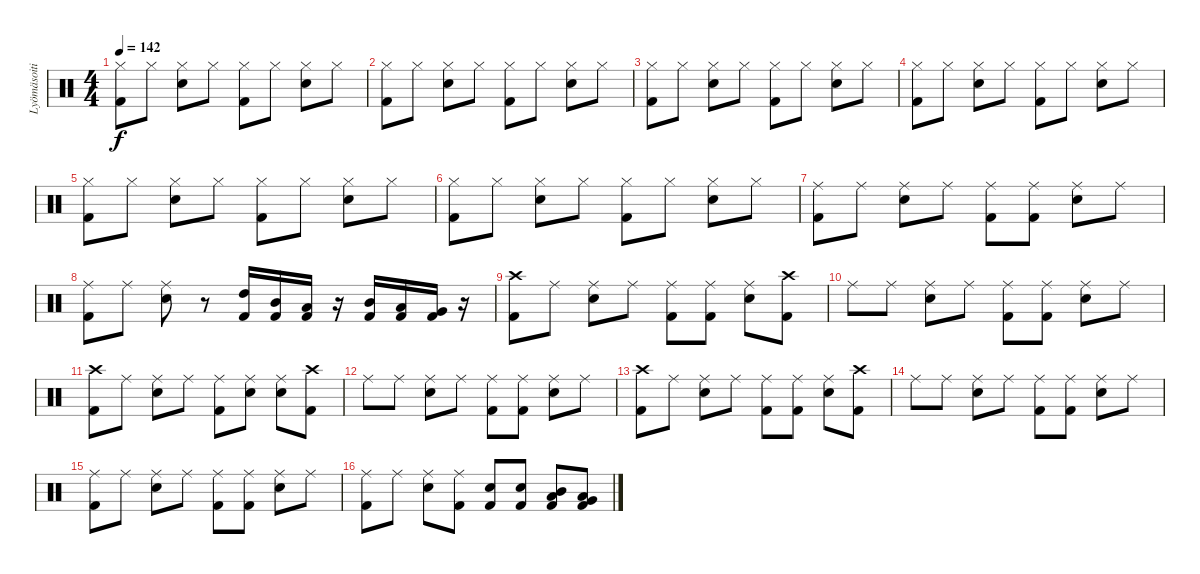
\track ("Lyömäsoitin" "Lyömäsoiti") {instrument percussion}
\staff {score}
\articulation defaults
\ts (4 4)
\tempo 142
\clef neutral
\ks c
("Hi-Hat (closed)" "Kick (hit) 2").8{dy f} "Hi-Hat (closed)".8 ("Hi-Hat (closed)" "Electric Snare (hit)").8 "Hi-Hat (closed)".8 ("Hi-Hat (closed)" "Kick (hit) 2").8 "Hi-Hat (closed)".8 ("Hi-Hat (closed)" "Electric Snare (hit)").8 "Hi-Hat (closed)".8 |
("Hi-Hat (closed)" "Kick (hit) 2").8 "Hi-Hat (closed)".8 ("Hi-Hat (closed)" "Electric Snare (hit)").8 "Hi-Hat (closed)".8 ("Hi-Hat (closed)" "Kick (hit) 2").8 "Hi-Hat (closed)".8 ("Hi-Hat (closed)" "Electric Snare (hit)").8 "Hi-Hat (closed)".8 |
("Hi-Hat (closed)" "Kick (hit) 2").8 "Hi-Hat (closed)".8 ("Hi-Hat (closed)" "Electric Snare (hit)").8 "Hi-Hat (closed)".8 ("Hi-Hat (closed)" "Kick (hit) 2").8 "Hi-Hat (closed)".8 ("Hi-Hat (closed)" "Electric Snare (hit)").8 "Hi-Hat (closed)".8 |
("Hi-Hat (closed)" "Kick (hit) 2").8 "Hi-Hat (closed)".8 ("Hi-Hat (closed)" "Electric Snare (hit)").8 "Hi-Hat (closed)".8 ("Hi-Hat (closed)" "Kick (hit) 2").8 "Hi-Hat (closed)".8 ("Hi-Hat (closed)" "Electric Snare (hit)").8 "Hi-Hat (closed)".8 |
("Hi-Hat (closed)" "Kick (hit) 2").8 "Hi-Hat (closed)".8 ("Hi-Hat (closed)" "Electric Snare (hit)").8 "Hi-Hat (closed)".8 ("Hi-Hat (closed)" "Kick (hit) 2").8 "Hi-Hat (closed)".8 ("Hi-Hat (closed)" "Electric Snare (hit)").8 "Hi-Hat (closed)".8 |
("Hi-Hat (closed)" "Kick (hit) 2").8 "Hi-Hat (closed)".8 ("Hi-Hat (closed)" "Electric Snare (hit)").8 "Hi-Hat (closed)".8 ("Hi-Hat (closed)" "Kick (hit) 2").8 "Hi-Hat (closed)".8 ("Hi-Hat (closed)" "Electric Snare (hit)").8 "Hi-Hat (closed)".8 |
("Ride (middle)" "Kick (hit) 2").8 "Ride (middle)".8 ("Ride (middle)" "Electric Snare (hit)").8 "Ride (middle)".8 ("Ride (middle)" "Kick (hit) 2").8 ("Ride (middle)" "Kick (hit) 2").8 ("Ride (middle)" "Electric Snare (hit)").8 "Ride (middle)".8 |
("Ride (middle)" "Kick (hit) 2").8 "Ride (middle)".8 ("Ride (middle)" "Electric Snare (hit)").8 r.8 ("High Tom (hit)" "Kick (hit) 2").16 ("Mid Tom (hit)" "Kick (hit) 2").16 ("Low Tom (hit)" "Kick (hit) 2").16 r.16 ("Mid Tom (hit)" "Kick (hit) 2").16 ("Low Tom (hit)" "Kick (hit) 2").16 ("Very Low Tom (hit)" "Kick (hit) 2").16 r.16 |
("Crash high (hit)" "Kick (hit) 2").8 "Ride (middle)".8 ("Ride (middle)" "Electric Snare (hit)").8 "Ride (middle)".8 ("Ride (middle)" "Kick (hit) 2").8 ("Ride (middle)" "Kick (hit) 2").8 ("Ride (middle)" "Electric Snare (hit)").8 ("Crash high (hit)" "Kick (hit) 2").8 |
"Ride (middle)".8 "Ride (middle)".8 ("Ride (middle)" "Electric Snare (hit)").8 "Ride (middle)".8 ("Ride (middle)" "Kick (hit) 2").8 ("Ride (middle)" "Kick (hit) 2").8 ("Ride (middle)" "Electric Snare (hit)").8 "Ride (middle)".8 |
("Crash high (hit)" "Kick (hit) 2").8 "Ride (middle)".8 ("Ride (middle)" "Electric Snare (hit)").8 "Ride (middle)".8 ("Ride (middle)" "Kick (hit) 2").8 ("Ride (middle)" "Electric Snare (hit)").8 ("Ride (middle)" "Electric Snare (hit)").8 ("Crash high (hit)" "Kick (hit) 2").8 |
"Ride (middle)".8 "Ride (middle)".8 ("Ride (middle)" "Electric Snare (hit)").8 "Ride (middle)".8 ("Ride (middle)" "Kick (hit) 2").8 ("Ride (middle)" "Kick (hit) 2").8 ("Ride (middle)" "Electric Snare (hit)").8 "Ride (middle)".8 |
("Crash high (hit)" "Kick (hit) 2").8 "Ride (middle)".8 ("Ride (middle)" "Electric Snare (hit)").8 "Ride (middle)".8 ("Ride (middle)" "Kick (hit) 2").8 ("Ride (middle)" "Kick (hit) 2").8 ("Ride (middle)" "Electric Snare (hit)").8 ("Crash high (hit)" "Kick (hit) 2").8 |
"Ride (middle)".8 "Ride (middle)".8 ("Ride (middle)" "Electric Snare (hit)").8 "Ride (middle)".8 ("Ride (middle)" "Kick (hit) 2").8 ("Ride (middle)" "Kick (hit) 2").8 ("Ride (middle)" "Electric Snare (hit)").8 "Ride (middle)".8 |
("Ride (middle)" "Kick (hit) 2").8 "Ride (middle)".8 ("Ride (middle)" "Electric Snare (hit)").8 "Ride (middle)".8 ("Ride (middle)" "Kick (hit) 2").8 ("Ride (middle)" "Kick (hit) 2").8 ("Ride (middle)" "Electric Snare (hit)").8 "Ride (middle)".8 |
("Ride (middle)" "Kick (hit) 2").8 "Ride (middle)".8 ("Ride (middle)" "Electric Snare (hit)").8 ("Ride (middle)" "Kick (hit) 2").8 ("Electric Snare (hit)" "Kick (hit) 2").8 ("Electric Snare (hit)" "Kick (hit) 2").8 ("Mid Tom (hit)" "Low Tom (hit)" "Kick (hit) 2").8 ("Low Tom (hit)" "Very Low Tom (hit)" "Kick (hit) 2").8
